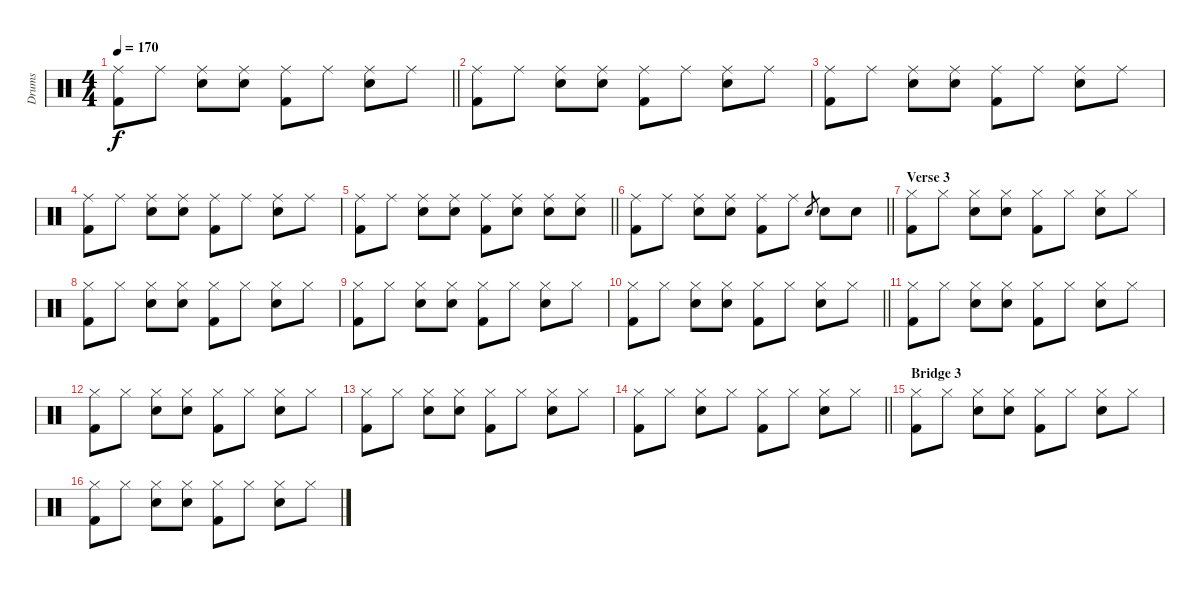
\track ("Drums" "Drums") {instrument percussion}
\staff {score}
\articulation defaults
\ts (4 4)
\tempo 170
\clef neutral
\barLineRight lightlight
\ks c
("Ride (middle)" "Kick (hit) 2").8{dy f} "Ride (middle)".8 ("Ride (middle)" "Snare (hit) 2").8 ("Ride (middle)" "Snare (hit) 2").8 ("Ride (middle)" "Kick (hit) 2").8 "Ride (middle)".8 ("Ride (middle)" "Snare (hit) 2").8 "Ride (middle)".8 |
("Ride (middle)" "Kick (hit) 2").8 "Ride (middle)".8 ("Ride (middle)" "Snare (hit) 2").8 ("Ride (middle)" "Snare (hit) 2").8 ("Ride (middle)" "Kick (hit) 2").8 "Ride (middle)".8 ("Ride (middle)" "Snare (hit) 2").8 "Ride (middle)".8 |
("Ride (middle)" "Kick (hit) 2").8 "Ride (middle)".8 ("Ride (middle)" "Snare (hit) 2").8 ("Ride (middle)" "Snare (hit) 2").8 ("Ride (middle)" "Kick (hit) 2").8 "Ride (middle)".8 ("Ride (middle)" "Snare (hit) 2").8 "Ride (middle)".8 |
("Ride (middle)" "Kick (hit) 2").8 "Ride (middle)".8 ("Ride (middle)" "Snare (hit) 2").8 ("Ride (middle)" "Snare (hit) 2").8 ("Ride (middle)" "Kick (hit) 2").8 "Ride (middle)".8 ("Ride (middle)" "Snare (hit) 2").8 "Ride (middle)".8 |
\barLineRight lightlight
("Ride (middle)" "Kick (hit) 2").8 "Ride (middle)".8 ("Ride (middle)" "Snare (hit) 2").8 ("Ride (middle)" "Snare (hit) 2").8 ("Ride (middle)" "Kick (hit) 2").8 ("Ride (middle)" "Snare (hit) 2").8 ("Ride (middle)" "Snare (hit) 2").8 ("Ride (middle)" "Snare (hit) 2").8 |
\barLineRight lightlight
("Ride (middle)" "Kick (hit) 2").8 "Ride (middle)".8 ("Ride (middle)" "Snare (hit) 2").8 ("Ride (middle)" "Snare (hit) 2").8 ("Ride (middle)" "Kick (hit) 2").8 "Ride (middle)".8 "Snare (hit) 2".8{gr} "Snare (hit) 2".8 "Snare (hit) 2".8 |
\section ("" "Verse 3")
("Hi-Hat (closed)" "Kick (hit) 2").8 "Hi-Hat (closed)".8 ("Hi-Hat (closed)" "Snare (hit) 2").8 ("Hi-Hat (closed)" "Snare (hit) 2").8 ("Hi-Hat (closed)" "Kick (hit) 2").8 "Hi-Hat (closed)".8 ("Hi-Hat (closed)" "Snare (hit) 2").8 "Hi-Hat (closed)".8 |
("Hi-Hat (closed)" "Kick (hit) 2").8 "Hi-Hat (closed)".8 ("Hi-Hat (closed)" "Snare (hit) 2").8 ("Hi-Hat (closed)" "Snare (hit) 2").8 ("Hi-Hat (closed)" "Kick (hit) 2").8 "Hi-Hat (closed)".8 ("Hi-Hat (closed)" "Snare (hit) 2").8 "Hi-Hat (closed)".8 |
("Hi-Hat (closed)" "Kick (hit) 2").8 "Hi-Hat (closed)".8 ("Hi-Hat (closed)" "Snare (hit) 2").8 ("Hi-Hat (closed)" "Snare (hit) 2").8 ("Hi-Hat (closed)" "Kick (hit) 2").8 "Hi-Hat (closed)".8 ("Hi-Hat (closed)" "Snare (hit) 2").8 "Hi-Hat (closed)".8 |
\barLineRight lightlight
("Hi-Hat (closed)" "Kick (hit) 2").8 "Hi-Hat (closed)".8 ("Hi-Hat (closed)" "Snare (hit) 2").8 ("Hi-Hat (closed)" "Snare (hit) 2").8 ("Hi-Hat (closed)" "Kick (hit) 2").8 "Hi-Hat (closed)".8 ("Hi-Hat (closed)" "Snare (hit) 2").8 "Hi-Hat (closed)".8 |
("Hi-Hat (closed)" "Kick (hit) 2").8 "Hi-Hat (closed)".8 ("Hi-Hat (closed)" "Snare (hit) 2").8 ("Hi-Hat (closed)" "Snare (hit) 2").8 ("Hi-Hat (closed)" "Kick (hit) 2").8 "Hi-Hat (closed)".8 ("Hi-Hat (closed)" "Snare (hit) 2").8 "Hi-Hat (closed)".8 |
("Hi-Hat (closed)" "Kick (hit) 2").8 "Hi-Hat (closed)".8 ("Hi-Hat (closed)" "Snare (hit) 2").8 ("Hi-Hat (closed)" "Snare (hit) 2").8 ("Hi-Hat (closed)" "Kick (hit) 2").8 "Hi-Hat (closed)".8 ("Hi-Hat (closed)" "Snare (hit) 2").8 "Hi-Hat (closed)".8 |
("Hi-Hat (closed)" "Kick (hit) 2").8 "Hi-Hat (closed)".8 ("Hi-Hat (closed)" "Snare (hit) 2").8 ("Hi-Hat (closed)" "Snare (hit) 2").8 ("Hi-Hat (closed)" "Kick (hit) 2").8 "Hi-Hat (closed)".8 ("Hi-Hat (closed)" "Snare (hit) 2").8 "Hi-Hat (closed)".8 |
\barLineRight lightlight
("Hi-Hat (closed)" "Kick (hit) 2").8 "Hi-Hat (closed)".8 ("Hi-Hat (closed)" "Snare (hit) 2").8 "Hi-Hat (closed)".8 ("Hi-Hat (closed)" "Kick (hit) 2").8 "Hi-Hat (closed)".8 ("Hi-Hat (closed)" "Snare (hit) 2").8 "Hi-Hat (closed)".8 |
\section ("" "Bridge 3")
("Hi-Hat (closed)" "Kick (hit) 2").8 "Hi-Hat (closed)".8 ("Hi-Hat (closed)" "Snare (hit) 2").8 ("Hi-Hat (closed)" "Snare (hit) 2").8 ("Hi-Hat (closed)" "Kick (hit) 2").8 "Hi-Hat (closed)".8 ("Hi-Hat (closed)" "Snare (hit) 2").8 "Hi-Hat (closed)".8 |
("Hi-Hat (closed)" "Kick (hit) 2").8 "Hi-Hat (closed)".8 ("Hi-Hat (closed)" "Snare (hit) 2").8 ("Hi-Hat (closed)" "Snare (hit) 2").8 ("Hi-Hat (closed)" "Kick (hit) 2").8 "Hi-Hat (closed)".8 ("Hi-Hat (closed)" "Snare (hit) 2").8 "Hi-Hat (closed)".8
